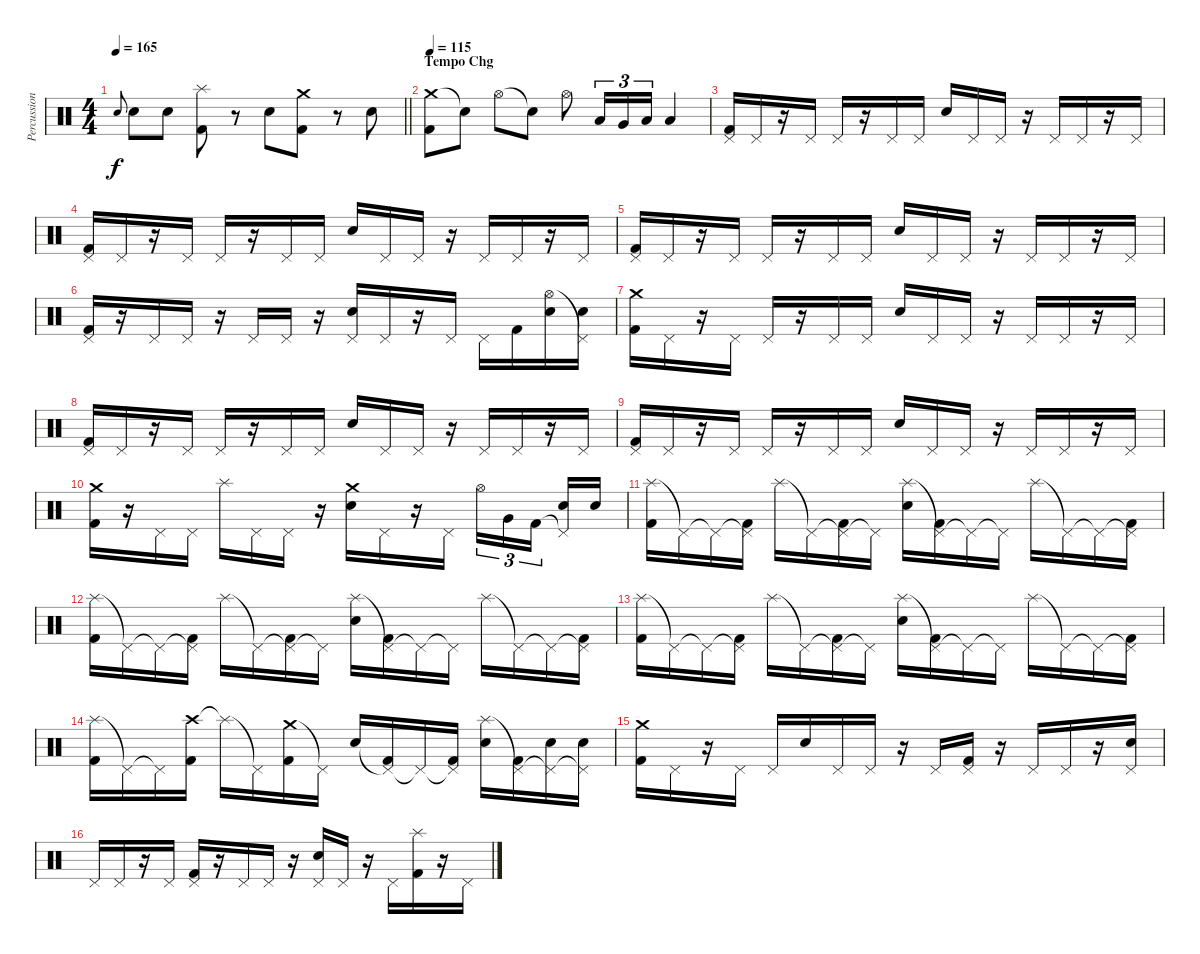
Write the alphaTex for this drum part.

\track ("Percussion" "Percussion") {instrument percussion}
\staff {score}
\articulation defaults
\ts (4 4)
\tempo 165
\clef neutral
\barLineRight lightlight
\ks c "Electric Snare (hit)".8{gr onbeat dy f} "Electric Snare (hit)".8 "Electric Snare (hit)".8
("Splash (hit)" "Kick (hit) 2").8 r.8 "Electric Snare (hit)".8 ("Crash medium (hit)" "Kick (hit) 2").8 r.8 "Electric Snare (hit)".8 |
\section ("" "Tempo Chg")
\tempo 115
("Crash medium (hit)" "Kick (hit) 2").8 "Snare (hit)"{t}.8 "Hi-Hat (open)".8 "Snare (hit)"{t}.8 "Hi-Hat (open)".8 "Low Tom (hit)".16{tu (3 2)} "Very Low Tom (hit)".16{tu (3 2)} "Low Floor Tom (hit)".16{tu (3 2)} "Low Floor Tom (hit)".4 |
("Pedal Hi-Hat (hit)" "Kick (hit) 2").16 "Pedal Hi-Hat (hit)".16 r.16 "Pedal Hi-Hat (hit)".16 "Pedal Hi-Hat (hit)".16 r.16 "Pedal Hi-Hat (hit)".16 "Pedal Hi-Hat (hit)".16 "Electric Snare (hit)".16 "Pedal Hi-Hat (hit)".16 "Pedal Hi-Hat (hit)".16 r.16 "Pedal Hi-Hat (hit)".16 "Pedal Hi-Hat (hit)".16 r.16 "Pedal Hi-Hat (hit)".16 |
("Pedal Hi-Hat (hit)" "Kick (hit) 2").16 "Pedal Hi-Hat (hit)".16 r.16 "Pedal Hi-Hat (hit)".16 "Pedal Hi-Hat (hit)".16 r.16 "Pedal Hi-Hat (hit)".16 "Pedal Hi-Hat (hit)".16 "Electric Snare (hit)".16 "Pedal Hi-Hat (hit)".16 "Pedal Hi-Hat (hit)".16 r.16 "Pedal Hi-Hat (hit)".16 "Pedal Hi-Hat (hit)".16 r.16 "Pedal Hi-Hat (hit)".16 |
("Pedal Hi-Hat (hit)" "Kick (hit) 2").16 "Pedal Hi-Hat (hit)".16 r.16 "Pedal Hi-Hat (hit)".16 "Pedal Hi-Hat (hit)".16 r.16 "Pedal Hi-Hat (hit)".16 "Pedal Hi-Hat (hit)".16 "Electric Snare (hit)".16 "Pedal Hi-Hat (hit)".16 "Pedal Hi-Hat (hit)".16 r.16 "Pedal Hi-Hat (hit)".16 "Pedal Hi-Hat (hit)".16 r.16 "Pedal Hi-Hat (hit)".16 |
("Pedal Hi-Hat (hit)" "Kick (hit) 2").16 r.16 "Pedal Hi-Hat (hit)".16 "Pedal Hi-Hat (hit)".16 r.16 "Pedal Hi-Hat (hit)".16 "Pedal Hi-Hat (hit)".16 r.16 ("Pedal Hi-Hat (hit)" "Electric Snare (hit)").16 "Pedal Hi-Hat (hit)".16 r.16 "Pedal Hi-Hat (hit)".16 "Pedal Hi-Hat (hit)".16 "Kick (hit) 2".16 ("Hi-Hat (open)" "Electric Snare (hit)").16 ("Pedal Hi-Hat (hit)"{t} "Electric Snare (hit)").16 |
("Crash medium (hit)" "Kick (hit) 2").16 "Pedal Hi-Hat (hit)".16 r.16 "Pedal Hi-Hat (hit)".16 "Pedal Hi-Hat (hit)".16 r.16 "Pedal Hi-Hat (hit)".16 "Pedal Hi-Hat (hit)".16 "Electric Snare (hit)".16 "Pedal Hi-Hat (hit)".16 "Pedal Hi-Hat (hit)".16 r.16 "Pedal Hi-Hat (hit)".16 "Pedal Hi-Hat (hit)".16 r.16 "Pedal Hi-Hat (hit)".16 |
("Pedal Hi-Hat (hit)" "Kick (hit) 2").16 "Pedal Hi-Hat (hit)".16 r.16 "Pedal Hi-Hat (hit)".16 "Pedal Hi-Hat (hit)".16 r.16 "Pedal Hi-Hat (hit)".16 "Pedal Hi-Hat (hit)".16 "Electric Snare (hit)".16 "Pedal Hi-Hat (hit)".16 "Pedal Hi-Hat (hit)".16 r.16 "Pedal Hi-Hat (hit)".16 "Pedal Hi-Hat (hit)".16 r.16 "Pedal Hi-Hat (hit)".16 |
("Pedal Hi-Hat (hit)" "Kick (hit) 2").16 "Pedal Hi-Hat (hit)".16 r.16 "Pedal Hi-Hat (hit)".16 "Pedal Hi-Hat (hit)".16 r.16 "Pedal Hi-Hat (hit)".16 "Pedal Hi-Hat (hit)".16 "Electric Snare (hit)".16 "Pedal Hi-Hat (hit)".16 "Pedal Hi-Hat (hit)".16 r.16 "Pedal Hi-Hat (hit)".16 "Pedal Hi-Hat (hit)".16 r.16 "Pedal Hi-Hat (hit)".16 |
("Crash medium (hit)" "Kick (hit) 2").16 r.16 "Pedal Hi-Hat (hit)".16 "Pedal Hi-Hat (hit)".16 "Splash (hit)".16 "Pedal Hi-Hat (hit)".16 "Pedal Hi-Hat (hit)".16 r.16 ("Crash medium (hit)" "Electric Snare (hit)").16 "Pedal Hi-Hat (hit)".16 r.16 "Pedal Hi-Hat (hit)".16 "Hi-Hat (open)".16{tu (3 2)} "Very Low Tom (hit)".16{tu (3 2)} "Kick (hit) 2".16{tu (3 2) beam splitsecondary} ("Pedal Hi-Hat (hit)"{t} "Electric Snare (hit)").16 "Electric Snare (hit)".16 |
("Splash (hit)" "Kick (hit) 2").16 "Pedal Hi-Hat (hit)"{t}.16 "Pedal Hi-Hat (hit)"{t}.16 ("Pedal Hi-Hat (hit)"{t} "Kick (hit) 2").16 "Splash (hit)".16 "Pedal Hi-Hat (hit)"{t}.16 ("Pedal Hi-Hat (hit)"{t} "Kick (hit) 2").16 "Pedal Hi-Hat (hit)"{t}.16 ("Splash (hit)" "Electric Snare (hit)").16 ("Pedal Hi-Hat (hit)"{t} "Kick (hit) 2").16 "Pedal Hi-Hat (hit)"{t}.16 "Pedal Hi-Hat (hit)"{t}.16 "Splash (hit)".16 "Pedal Hi-Hat (hit)"{t}.16 "Pedal Hi-Hat (hit)"{t}.16 ("Pedal Hi-Hat (hit)"{t} "Kick (hit) 2").16 |
("Splash (hit)" "Kick (hit) 2").16 "Pedal Hi-Hat (hit)"{t}.16 "Pedal Hi-Hat (hit)"{t}.16 ("Pedal Hi-Hat (hit)"{t} "Kick (hit) 2").16 "Splash (hit)".16 "Pedal Hi-Hat (hit)"{t}.16 ("Pedal Hi-Hat (hit)"{t} "Kick (hit) 2").16 "Pedal Hi-Hat (hit)"{t}.16 ("Splash (hit)" "Electric Snare (hit)").16 ("Pedal Hi-Hat (hit)"{t} "Kick (hit) 2").16 "Pedal Hi-Hat (hit)"{t}.16 "Pedal Hi-Hat (hit)"{t}.16 "Splash (hit)".16 "Pedal Hi-Hat (hit)"{t}.16 "Pedal Hi-Hat (hit)"{t}.16 ("Pedal Hi-Hat (hit)"{t} "Kick (hit) 2").16 |
("Splash (hit)" "Kick (hit) 2").16 "Pedal Hi-Hat (hit)"{t}.16 "Pedal Hi-Hat (hit)"{t}.16 ("Pedal Hi-Hat (hit)"{t} "Kick (hit) 2").16 "Splash (hit)".16 "Pedal Hi-Hat (hit)"{t}.16 ("Pedal Hi-Hat (hit)"{t} "Kick (hit) 2").16 "Pedal Hi-Hat (hit)"{t}.16 ("Splash (hit)" "Electric Snare (hit)").16 ("Pedal Hi-Hat (hit)"{t} "Kick (hit) 2").16 "Pedal Hi-Hat (hit)"{t}.16 "Pedal Hi-Hat (hit)"{t}.16 "Splash (hit)".16 "Pedal Hi-Hat (hit)"{t}.16 "Pedal Hi-Hat (hit)"{t}.16 ("Pedal Hi-Hat (hit)"{t} "Kick (hit) 2").16 |
("Splash (hit)" "Kick (hit) 2").16 "Pedal Hi-Hat (hit)"{t}.16 "Pedal Hi-Hat (hit)"{t}.16 ("Crash high (hit)" "Kick (hit) 2").16 "Splash (hit)"{t}.16 "Pedal Hi-Hat (hit)"{t}.16 ("Crash medium (hit)" "Kick (hit) 2").16 "Pedal Hi-Hat (hit)"{t}.16 "Electric Snare (hit)".16 ("Pedal Hi-Hat (hit)"{t} "Kick (hit) 2").16 "Pedal Hi-Hat (hit)"{t}.16 ("Pedal Hi-Hat (hit)"{t} "Kick (hit) 2").16 ("Splash (hit)" "Electric Snare (hit)").16 ("Pedal Hi-Hat (hit)"{t} "Kick (hit) 2").16 ("Pedal Hi-Hat (hit)"{t} "Electric Snare (hit)").16 ("Pedal Hi-Hat (hit)"{t} "Electric Snare (hit)").16 |
("Crash medium (hit)" "Kick (hit) 2").16 "Pedal Hi-Hat (hit)".16 r.16 "Pedal Hi-Hat (hit)".16 "Pedal Hi-Hat (hit)".16 "Electric Snare (hit)".16 "Pedal Hi-Hat (hit)".16 "Pedal Hi-Hat (hit)".16 r.16 "Pedal Hi-Hat (hit)".16 ("Pedal Hi-Hat (hit)" "Kick (hit) 2").16 r.16 "Pedal Hi-Hat (hit)".16 "Pedal Hi-Hat (hit)".16 r.16 ("Pedal Hi-Hat (hit)" "Electric Snare (hit)").16 |
"Pedal Hi-Hat (hit)".16 "Pedal Hi-Hat (hit)".16 r.16 "Pedal Hi-Hat (hit)".16 ("Pedal Hi-Hat (hit)" "Kick (hit) 2").16 r.16 "Pedal Hi-Hat (hit)".16 "Pedal Hi-Hat (hit)".16 r.16 ("Pedal Hi-Hat (hit)" "Electric Snare (hit)").16 "Pedal Hi-Hat (hit)".16 r.16 "Pedal Hi-Hat (hit)".16 ("Splash (hit)" "Kick (hit) 2").16 r.16 "Pedal Hi-Hat (hit)".16
